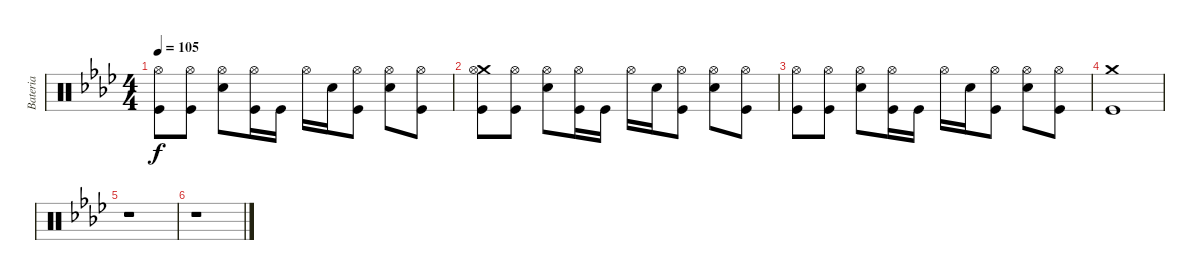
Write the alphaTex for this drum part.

\track ("Bateria" "Bateria") {instrument percussion}
\staff {score}
\articulation defaults
\ts (4 4)
\tempo 105
\clef neutral
\ks fminor
("Kick (hit)" "Hi-Hat (open)").8{dy f} ("Kick (hit)" "Hi-Hat (open)").8 ("Snare (hit) 2" "Hi-Hat (open)").8 ("Kick (hit)" "Hi-Hat (open)").16 "Kick (hit)".16 "Hi-Hat (open)".16 "Snare (hit) 2".16 ("Kick (hit)" "Hi-Hat (open)").8 ("Snare (hit) 2" "Hi-Hat (open)").8 ("Kick (hit)" "Hi-Hat (open)").8 |
("Crash medium (hit)" "Kick (hit)" "Hi-Hat (open)").8 ("Kick (hit)" "Hi-Hat (open)").8 ("Snare (hit) 2" "Hi-Hat (open)").8 ("Kick (hit)" "Hi-Hat (open)").16 "Kick (hit)".16 "Hi-Hat (open)".16 "Snare (hit) 2".16 ("Kick (hit)" "Hi-Hat (open)").8 ("Snare (hit) 2" "Hi-Hat (open)").8 ("Kick (hit)" "Hi-Hat (open)").8 |
("Kick (hit)" "Hi-Hat (open)").8 ("Kick (hit)" "Hi-Hat (open)").8 ("Snare (hit) 2" "Hi-Hat (open)").8 ("Kick (hit)" "Hi-Hat (open)").16 "Kick (hit)".16 "Hi-Hat (open)".16 "Snare (hit) 2".16 ("Kick (hit)" "Hi-Hat (open)").8 ("Snare (hit) 2" "Hi-Hat (open)").8 ("Kick (hit)" "Hi-Hat (open)").8 |
("Crash medium (hit)" "Kick (hit)").1 |
r.1 |
r.1
